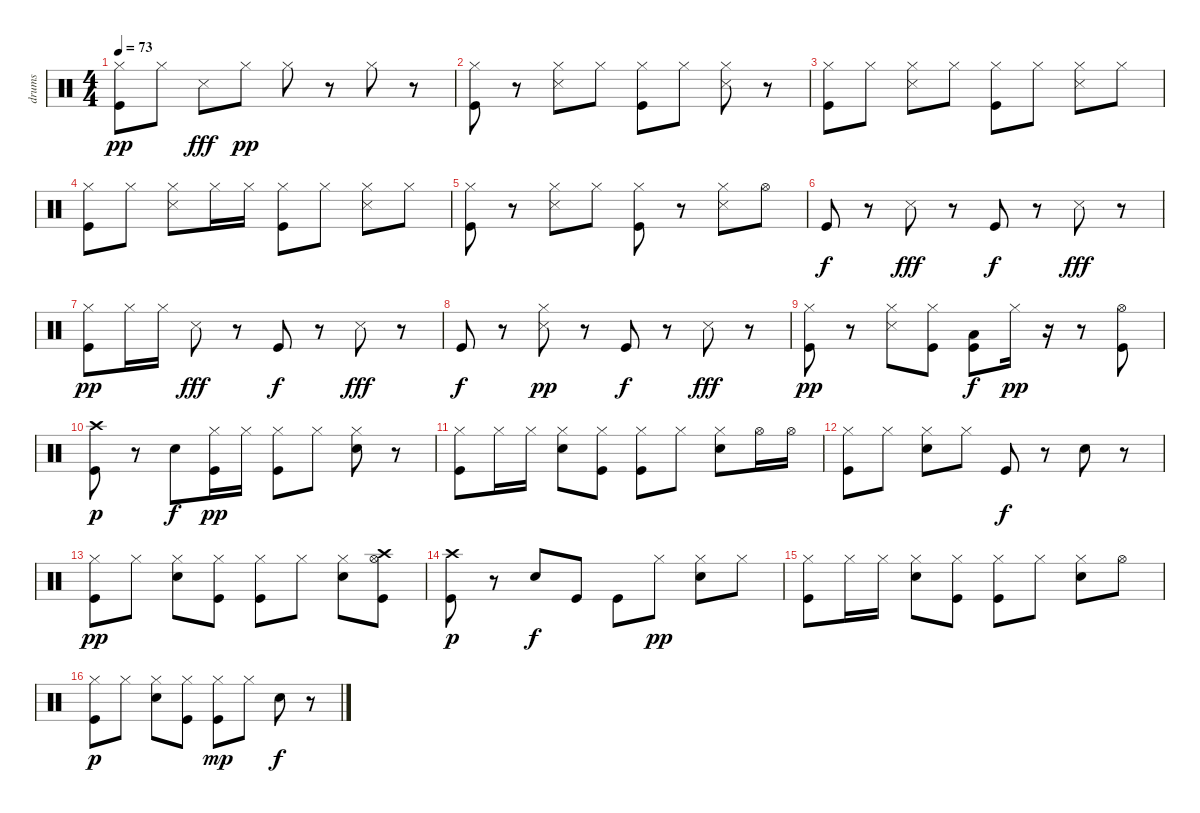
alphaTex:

\track ("drums" "drums") {instrument percussion}
\staff {score}
\articulation defaults
\ts (4 4)
\tempo 73
\clef neutral
\ks c
("Hi-Hat (closed)" "Kick (hit)").8{dy pp} "Hi-Hat (closed)".8 "Metronome (hit)".8{dy fff} "Hi-Hat (closed)".8{dy pp} "Hi-Hat (closed)".8 r.8 "Hi-Hat (closed)".8 r.8 |
("Hi-Hat (closed)" "Kick (hit)").8 r.8 ("Metronome (hit)" "Hi-Hat (closed)").8 "Hi-Hat (closed)".8 ("Hi-Hat (closed)" "Kick (hit)").8 "Hi-Hat (closed)".8 ("Metronome (hit)" "Hi-Hat (closed)").8 r.8 |
("Hi-Hat (closed)" "Kick (hit)").8 "Hi-Hat (closed)".8 ("Metronome (hit)" "Hi-Hat (closed)").8 "Hi-Hat (closed)".8 ("Hi-Hat (closed)" "Kick (hit)").8 "Hi-Hat (closed)".8 ("Metronome (hit)" "Hi-Hat (closed)").8 "Hi-Hat (closed)".8 |
("Hi-Hat (closed)" "Kick (hit)").8 "Hi-Hat (closed)".8 ("Metronome (hit)" "Hi-Hat (closed)").8 "Hi-Hat (closed)".16 "Hi-Hat (closed)".16 ("Hi-Hat (closed)" "Kick (hit)").8 "Hi-Hat (closed)".8 ("Metronome (hit)" "Hi-Hat (closed)").8 "Hi-Hat (closed)".8 |
("Hi-Hat (closed)" "Kick (hit)").8 r.8 ("Metronome (hit)" "Hi-Hat (closed)").8 "Hi-Hat (closed)".8 ("Hi-Hat (closed)" "Kick (hit)").8 r.8 ("Metronome (hit)" "Hi-Hat (closed)").8 "Hi-Hat (open)".8 |
"Kick (hit)".8{dy f} r.8 "Metronome (hit)".8{dy fff} r.8 "Kick (hit)".8{dy f} r.8 "Metronome (hit)".8{dy fff} r.8 |
("Hi-Hat (closed)" "Kick (hit)").8{dy pp} "Hi-Hat (closed)".16 "Hi-Hat (closed)".16 "Metronome (hit)".8{dy fff} r.8 "Kick (hit)".8{dy f} r.8 "Metronome (hit)".8{dy fff} r.8 |
"Kick (hit)".8{dy f} r.8 ("Metronome (hit)" "Hi-Hat (closed)").8{dy pp} r.8 "Kick (hit)".8{dy f} r.8 "Metronome (hit)".8{dy fff} r.8 |
("Hi-Hat (closed)" "Kick (hit)").8{dy pp} r.8 ("Metronome (hit)" "Hi-Hat (closed)").8 ("Hi-Hat (closed)" "Kick (hit)").8 ("Low Tom (hit)" "Kick (hit)").8{dy f} "Hi-Hat (closed)".16{dy pp} r.16 r.8 ("Hi-Hat (open)" "Kick (hit)").8 |
("Crash high (hit)" "Kick (hit)").8{dy p} r.8 "Snare (hit) 2".8{dy f} ("Hi-Hat (closed)" "Kick (hit)").16{dy pp} "Hi-Hat (closed)".16 ("Hi-Hat (closed)" "Kick (hit)").8 "Hi-Hat (closed)".8 ("Snare (hit) 2" "Hi-Hat (closed)").8 r.8 |
("Hi-Hat (closed)" "Kick (hit)").8 "Hi-Hat (closed)".16 "Hi-Hat (closed)".16 ("Snare (hit) 2" "Hi-Hat (closed)").8 ("Hi-Hat (closed)" "Kick (hit)").8 ("Hi-Hat (closed)" "Kick (hit)").8 "Hi-Hat (closed)".8 ("Snare (hit) 2" "Hi-Hat (closed)").8 "Hi-Hat (open)".16 "Hi-Hat (open)".16 |
("Hi-Hat (closed)" "Kick (hit)").8 "Hi-Hat (closed)".8 ("Snare (hit) 2" "Hi-Hat (closed)").8 "Hi-Hat (closed)".8 "Kick (hit)".8{dy f} r.8 "Snare (hit) 2".8 r.8 |
("Hi-Hat (closed)" "Kick (hit)").8{dy pp} "Hi-Hat (closed)".8 ("Snare (hit) 2" "Hi-Hat (closed)").8 ("Hi-Hat (closed)" "Kick (hit)").8 ("Hi-Hat (closed)" "Kick (hit)").8 "Hi-Hat (closed)".8 ("Snare (hit) 2" "Hi-Hat (closed)").8 ("Crash high (hit)" "Hi-Hat (open)" "Kick (hit)").8 |
("Crash high (hit)" "Kick (hit)").8{dy p} r.8 "Snare (hit) 2".8{dy f} "Kick (hit)".8 "Kick (hit)".8 "Hi-Hat (closed)".8{dy pp} ("Snare (hit) 2" "Hi-Hat (closed)").8 "Hi-Hat (closed)".8 |
("Hi-Hat (closed)" "Kick (hit)").8 "Hi-Hat (closed)".16 "Hi-Hat (closed)".16 ("Snare (hit) 2" "Hi-Hat (closed)").8 ("Hi-Hat (closed)" "Kick (hit)").8 ("Hi-Hat (closed)" "Kick (hit)").8 "Hi-Hat (closed)".8 ("Snare (hit) 2" "Hi-Hat (closed)").8 "Hi-Hat (open)".8 |
("Hi-Hat (closed)" "Kick (hit)").8{dy p} "Hi-Hat (closed)".8 ("Snare (hit) 2" "Hi-Hat (closed)").8 ("Hi-Hat (closed)" "Kick (hit)").8 ("Hi-Hat (closed)" "Kick (hit)").8{dy mp} "Hi-Hat (closed)".8 "Snare (hit) 2".8{dy f} r.8
